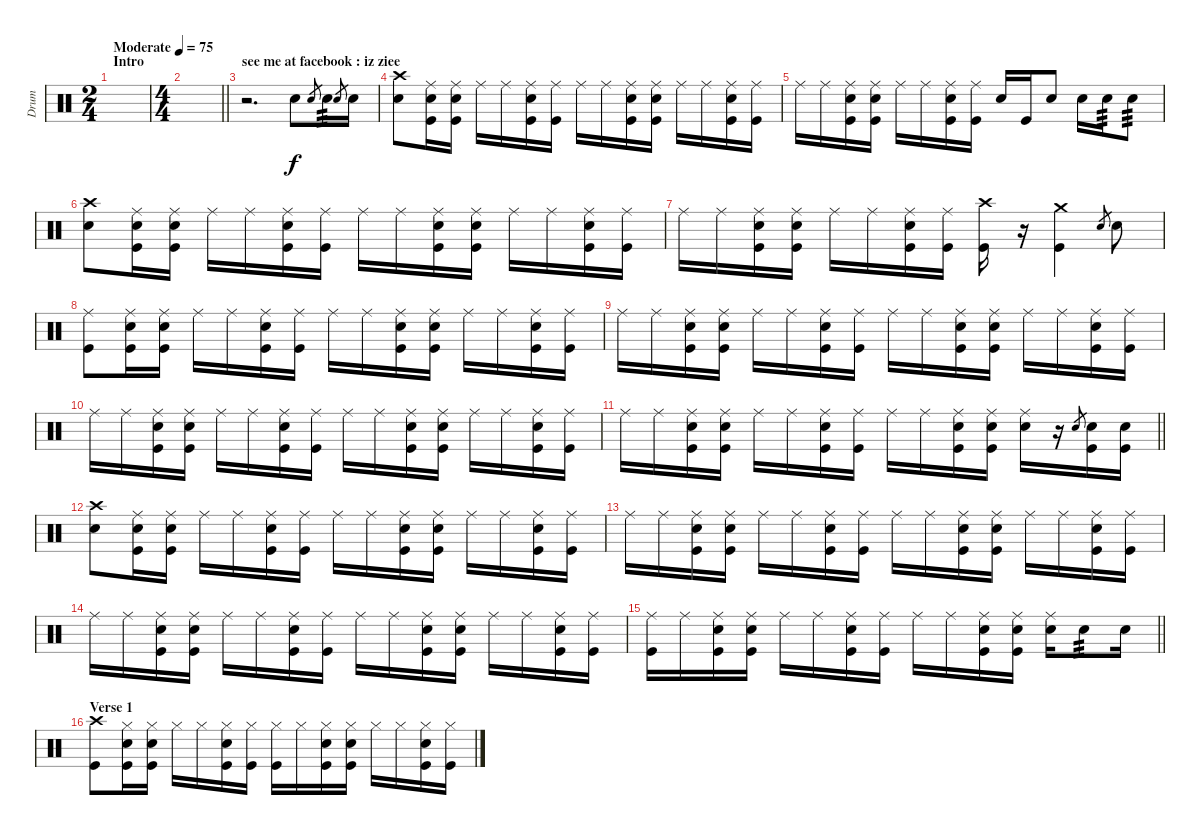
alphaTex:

\track ("Drum" "Drum") {instrument percussion}
\staff {score}
\articulation defaults
\ts (2 4)
\section ("" "Intro")
\tempo (75 "Moderate")
\clef neutral
\ks c
|
\ts (4 4)
\barLineRight lightlight
|
\section ("" "see me at facebook : iz ziee")
r.2{d} "Electric Snare (hit)".8 "Electric Snare (hit)".8{gr} "Electric Snare (hit)".16{tp 3} "Electric Snare (hit)".8{gr} "Electric Snare (hit)".16 |
("Electric Snare (hit)" "Crash high (hit)").8 ("Ride (middle)" "Electric Snare (hit)" "Kick (hit)").16 ("Ride (middle)" "Electric Snare (hit)" "Kick (hit)").16 "Ride (middle)".16 "Ride (middle)".16 ("Ride (middle)" "Electric Snare (hit)" "Kick (hit)").16 ("Ride (middle)" "Kick (hit)").16 "Ride (middle)".16 "Ride (middle)".16 ("Ride (middle)" "Electric Snare (hit)" "Kick (hit)").16 ("Ride (middle)" "Electric Snare (hit)" "Kick (hit)").16 "Ride (middle)".16 "Ride (middle)".16 ("Ride (middle)" "Electric Snare (hit)" "Kick (hit)").16 ("Ride (middle)" "Kick (hit)").16 |
"Ride (middle)".16 "Ride (middle)".16 ("Ride (middle)" "Electric Snare (hit)" "Kick (hit)").16 ("Ride (middle)" "Electric Snare (hit)" "Kick (hit)").16 "Ride (middle)".16 "Ride (middle)".16 ("Ride (middle)" "Electric Snare (hit)" "Kick (hit)").16 ("Ride (middle)" "Kick (hit)").16 "Electric Snare (hit)".16 "Kick (hit)".16 "Electric Snare (hit)".8 "Electric Snare (hit)".16 "Electric Snare (hit)".16{tp 3} "Electric Snare (hit)".8{tp 3} |
("Electric Snare (hit)" "Crash high (hit)").8 ("Ride (middle)" "Electric Snare (hit)" "Kick (hit)").16 ("Ride (middle)" "Electric Snare (hit)" "Kick (hit)").16 "Ride (middle)".16 "Ride (middle)".16 ("Ride (middle)" "Electric Snare (hit)" "Kick (hit)").16 ("Ride (middle)" "Kick (hit)").16 "Ride (middle)".16 "Ride (middle)".16 ("Ride (middle)" "Electric Snare (hit)" "Kick (hit)").16 ("Ride (middle)" "Electric Snare (hit)" "Kick (hit)").16 "Ride (middle)".16 "Ride (middle)".16 ("Ride (middle)" "Electric Snare (hit)" "Kick (hit)").16 ("Ride (middle)" "Kick (hit)").16 |
"Ride (middle)".16 "Ride (middle)".16 ("Ride (middle)" "Electric Snare (hit)" "Kick (hit)").16 ("Ride (middle)" "Electric Snare (hit)" "Kick (hit)").16 "Ride (middle)".16 "Ride (middle)".16 ("Ride (middle)" "Electric Snare (hit)" "Kick (hit)").16 ("Ride (middle)" "Kick (hit)").16 ("Crash high (hit)" "Kick (hit)").16 r.16 ("Crash medium (hit)" "Kick (hit)").4 "Electric Snare (hit)".8{gr} "Electric Snare (hit)".8 |
("Ride (middle)" "Kick (hit)").8 ("Ride (middle)" "Electric Snare (hit)" "Kick (hit)").16 ("Ride (middle)" "Electric Snare (hit)" "Kick (hit)").16 "Ride (middle)".16 "Ride (middle)".16 ("Ride (middle)" "Electric Snare (hit)" "Kick (hit)").16 ("Ride (middle)" "Kick (hit)").16 "Ride (middle)".16 "Ride (middle)".16 ("Ride (middle)" "Electric Snare (hit)" "Kick (hit)").16 ("Ride (middle)" "Electric Snare (hit)" "Kick (hit)").16 "Ride (middle)".16 "Ride (middle)".16 ("Ride (middle)" "Electric Snare (hit)" "Kick (hit)").16 ("Ride (middle)" "Kick (hit)").16 |
"Ride (middle)".16 "Ride (middle)".16 ("Ride (middle)" "Electric Snare (hit)" "Kick (hit)").16 ("Ride (middle)" "Electric Snare (hit)" "Kick (hit)").16 "Ride (middle)".16 "Ride (middle)".16 ("Ride (middle)" "Electric Snare (hit)" "Kick (hit)").16 ("Ride (middle)" "Kick (hit)").16 "Ride (middle)".16 "Ride (middle)".16 ("Ride (middle)" "Electric Snare (hit)" "Kick (hit)").16 ("Ride (middle)" "Electric Snare (hit)" "Kick (hit)").16 "Ride (middle)".16 "Ride (middle)".16 ("Ride (middle)" "Electric Snare (hit)" "Kick (hit)").16 ("Ride (middle)" "Kick (hit)").16 |
"Ride (middle)".16 "Ride (middle)".16 ("Ride (middle)" "Electric Snare (hit)" "Kick (hit)").16 ("Ride (middle)" "Electric Snare (hit)" "Kick (hit)").16 "Ride (middle)".16 "Ride (middle)".16 ("Ride (middle)" "Electric Snare (hit)" "Kick (hit)").16 ("Ride (middle)" "Kick (hit)").16 "Ride (middle)".16 "Ride (middle)".16 ("Ride (middle)" "Electric Snare (hit)" "Kick (hit)").16 ("Ride (middle)" "Electric Snare (hit)" "Kick (hit)").16 "Ride (middle)".16 "Ride (middle)".16 ("Ride (middle)" "Electric Snare (hit)" "Kick (hit)").16 ("Ride (middle)" "Kick (hit)").16 |
\barLineRight lightlight "Ride (middle)".16 "Ride (middle)".16
("Ride (middle)" "Electric Snare (hit)" "Kick (hit)").16 ("Ride (middle)" "Electric Snare (hit)" "Kick (hit)").16 "Ride (middle)".16 "Ride (middle)".16 ("Ride (middle)" "Electric Snare (hit)" "Kick (hit)").16 ("Ride (middle)" "Kick (hit)").16 "Ride (middle)".16 "Ride (middle)".16 ("Ride (middle)" "Electric Snare (hit)" "Kick (hit)").16 ("Ride (middle)" "Electric Snare (hit)" "Kick (hit)").16 ("Ride (middle)" "Electric Snare (hit)").16 r.16 "Electric Snare (hit)".8{gr} ("Electric Snare (hit)" "Kick (hit)").16 ("Electric Snare (hit)" "Kick (hit)").16 |
("Electric Snare (hit)" "Crash high (hit)").8 ("Ride (middle)" "Electric Snare (hit)" "Kick (hit)").16 ("Ride (middle)" "Electric Snare (hit)" "Kick (hit)").16 "Ride (middle)".16 "Ride (middle)".16 ("Ride (middle)" "Electric Snare (hit)" "Kick (hit)").16 ("Ride (middle)" "Kick (hit)").16 "Ride (middle)".16 "Ride (middle)".16 ("Ride (middle)" "Electric Snare (hit)" "Kick (hit)").16 ("Ride (middle)" "Electric Snare (hit)" "Kick (hit)").16 "Ride (middle)".16 "Ride (middle)".16 ("Ride (middle)" "Electric Snare (hit)" "Kick (hit)").16 ("Ride (middle)" "Kick (hit)").16 |
"Ride (middle)".16 "Ride (middle)".16 ("Ride (middle)" "Electric Snare (hit)" "Kick (hit)").16 ("Ride (middle)" "Electric Snare (hit)" "Kick (hit)").16 "Ride (middle)".16 "Ride (middle)".16 ("Ride (middle)" "Electric Snare (hit)" "Kick (hit)").16 ("Ride (middle)" "Kick (hit)").16 "Ride (middle)".16 "Ride (middle)".16 ("Ride (middle)" "Electric Snare (hit)" "Kick (hit)").16 ("Ride (middle)" "Electric Snare (hit)" "Kick (hit)").16 "Ride (middle)".16 "Ride (middle)".16 ("Ride (middle)" "Electric Snare (hit)" "Kick (hit)").16 ("Ride (middle)" "Kick (hit)").16 |
"Ride (middle)".16 "Ride (middle)".16 ("Ride (middle)" "Electric Snare (hit)" "Kick (hit)").16 ("Ride (middle)" "Electric Snare (hit)" "Kick (hit)").16 "Ride (middle)".16 "Ride (middle)".16 ("Ride (middle)" "Electric Snare (hit)" "Kick (hit)").16 ("Ride (middle)" "Kick (hit)").16 "Ride (middle)".16 "Ride (middle)".16 ("Ride (middle)" "Electric Snare (hit)" "Kick (hit)").16 ("Ride (middle)" "Electric Snare (hit)" "Kick (hit)").16 "Ride (middle)".16 "Ride (middle)".16 ("Ride (middle)" "Electric Snare (hit)" "Kick (hit)").16 ("Ride (middle)" "Kick (hit)").16 |
\barLineRight lightlight
("Ride (middle)" "Kick (hit)").16 "Ride (middle)".16 ("Ride (middle)" "Electric Snare (hit)" "Kick (hit)").16 ("Ride (middle)" "Electric Snare (hit)" "Kick (hit)").16 "Ride (middle)".16 "Ride (middle)".16 ("Ride (middle)" "Electric Snare (hit)" "Kick (hit)").16 ("Ride (middle)" "Kick (hit)").16 "Ride (middle)".16 "Ride (middle)".16 ("Ride (middle)" "Electric Snare (hit)" "Kick (hit)").16 ("Ride (middle)" "Electric Snare (hit)" "Kick (hit)").16 ("Ride (middle)" "Electric Snare (hit)").16 "Electric Snare (hit)".8{tp 3} "Electric Snare (hit)".16 |
\section ("" "Verse 1")
("Crash high (hit)" "Kick (hit)").8 ("Hi-Hat (closed)" "Electric Snare (hit)" "Kick (hit)").16 ("Hi-Hat (closed)" "Electric Snare (hit)" "Kick (hit)").16 "Hi-Hat (closed)".16 "Hi-Hat (closed)".16 ("Hi-Hat (closed)" "Electric Snare (hit)" "Kick (hit)").16 ("Hi-Hat (closed)" "Kick (hit)").16 ("Hi-Hat (closed)" "Kick (hit)").16 "Hi-Hat (closed)".16 ("Hi-Hat (closed)" "Electric Snare (hit)" "Kick (hit)").16 ("Hi-Hat (closed)" "Electric Snare (hit)" "Kick (hit)").16 "Hi-Hat (closed)".16 "Hi-Hat (closed)".16 ("Hi-Hat (closed)" "Electric Snare (hit)" "Kick (hit)").16 ("Hi-Hat (closed)" "Kick (hit)").16
